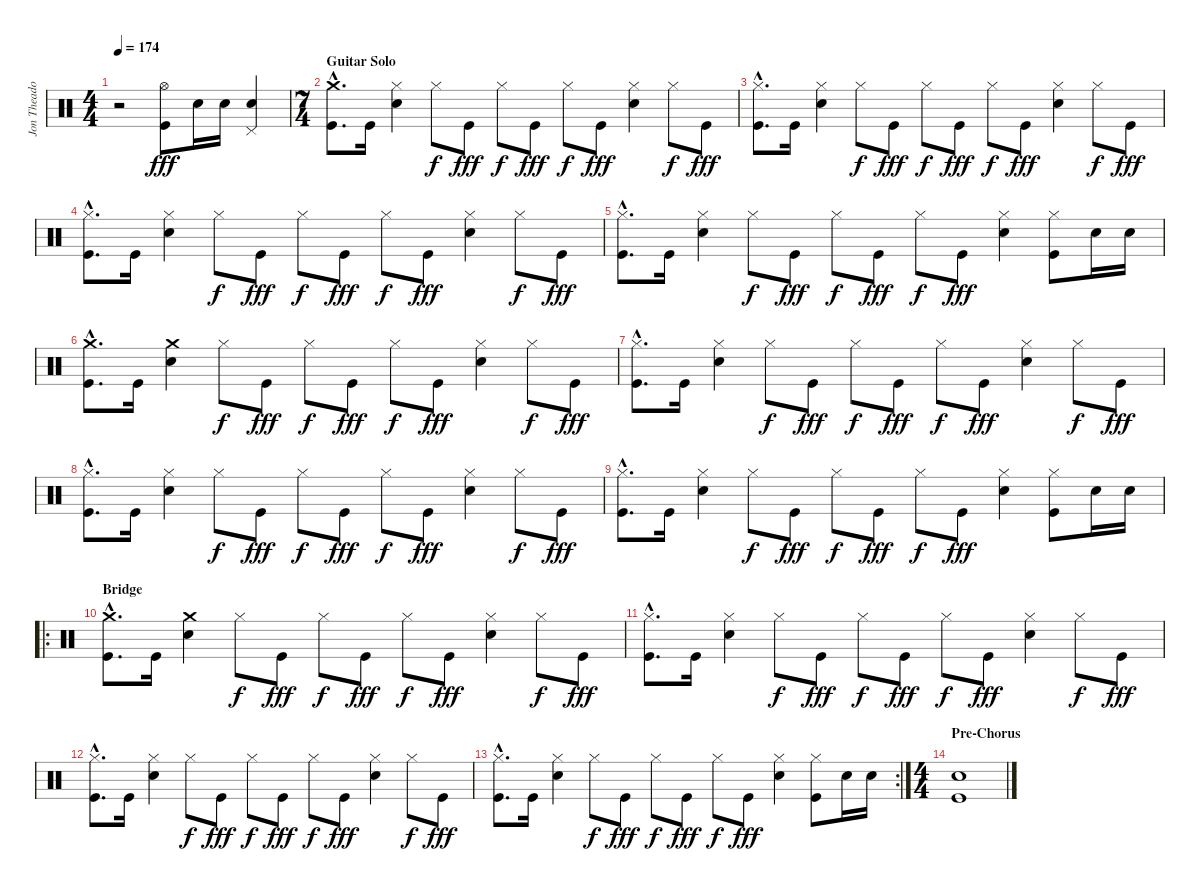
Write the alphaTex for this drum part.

\track ("Jon Theadore - Drums" "Jon Theado") {instrument percussion}
\staff {score}
\articulation defaults
\ts (4 4)
\tempo 174
\clef neutral
\ks c
r.2{dy fff} ("Hi-Hat (open)" "Kick (hit)").8 "Snare (hit) 2".16 "Snare (hit) 2".16 ("Pedal Hi-Hat (hit)" "Snare (hit) 2").4 |
\ts (7 4)
\section ("" "Guitar Solo")
("Crash medium (hit)"{hac} "Kick (hit)"{hac}).8{d} "Kick (hit)".16 ("Hi-Hat (closed)" "Snare (hit) 2").4 "Hi-Hat (closed)".8{dy f} "Kick (hit)".8{dy fff} "Hi-Hat (closed)".8{dy f} "Kick (hit)".8{dy fff} "Hi-Hat (closed)".8{dy f} "Kick (hit)".8{dy fff} ("Hi-Hat (closed)" "Snare (hit) 2").4 "Hi-Hat (closed)".8{dy f} "Kick (hit)".8{dy fff} |
("Hi-Hat (closed)"{hac} "Kick (hit)"{hac}).8{d} "Kick (hit)".16 ("Hi-Hat (closed)" "Snare (hit) 2").4 "Hi-Hat (closed)".8{dy f} "Kick (hit)".8{dy fff} "Hi-Hat (closed)".8{dy f} "Kick (hit)".8{dy fff} "Hi-Hat (closed)".8{dy f} "Kick (hit)".8{dy fff} ("Hi-Hat (closed)" "Snare (hit) 2").4 "Hi-Hat (closed)".8{dy f} "Kick (hit)".8{dy fff} |
("Hi-Hat (closed)"{hac} "Kick (hit)"{hac}).8{d} "Kick (hit)".16 ("Hi-Hat (closed)" "Snare (hit) 2").4 "Hi-Hat (closed)".8{dy f} "Kick (hit)".8{dy fff} "Hi-Hat (closed)".8{dy f} "Kick (hit)".8{dy fff} "Hi-Hat (closed)".8{dy f} "Kick (hit)".8{dy fff} ("Hi-Hat (closed)" "Snare (hit) 2").4 "Hi-Hat (closed)".8{dy f} "Kick (hit)".8{dy fff} |
("Hi-Hat (closed)"{hac} "Kick (hit)"{hac}).8{d} "Kick (hit)".16 ("Hi-Hat (closed)" "Snare (hit) 2").4 "Hi-Hat (closed)".8{dy f} "Kick (hit)".8{dy fff} "Hi-Hat (closed)".8{dy f} "Kick (hit)".8{dy fff} "Hi-Hat (closed)".8{dy f} "Kick (hit)".8{dy fff} ("Hi-Hat (closed)" "Snare (hit) 2").4 ("Hi-Hat (closed)" "Kick (hit)").8 "Snare (hit) 2".16 "Snare (hit) 2".16 |
("Crash medium (hit)"{hac} "Kick (hit)"{hac}).8{d} "Kick (hit)".16 ("Crash medium (hit)" "Snare (hit) 2").4 "Hi-Hat (closed)".8{dy f} "Kick (hit)".8{dy fff} "Hi-Hat (closed)".8{dy f} "Kick (hit)".8{dy fff} "Hi-Hat (closed)".8{dy f} "Kick (hit)".8{dy fff} ("Hi-Hat (closed)" "Snare (hit) 2").4 "Hi-Hat (closed)".8{dy f} "Kick (hit)".8{dy fff} |
("Hi-Hat (closed)"{hac} "Kick (hit)"{hac}).8{d} "Kick (hit)".16 ("Hi-Hat (closed)" "Snare (hit) 2").4 "Hi-Hat (closed)".8{dy f} "Kick (hit)".8{dy fff} "Hi-Hat (closed)".8{dy f} "Kick (hit)".8{dy fff} "Hi-Hat (closed)".8{dy f} "Kick (hit)".8{dy fff} ("Hi-Hat (closed)" "Snare (hit) 2").4 "Hi-Hat (closed)".8{dy f} "Kick (hit)".8{dy fff} |
("Hi-Hat (closed)"{hac} "Kick (hit)"{hac}).8{d} "Kick (hit)".16 ("Hi-Hat (closed)" "Snare (hit) 2").4 "Hi-Hat (closed)".8{dy f} "Kick (hit)".8{dy fff} "Hi-Hat (closed)".8{dy f} "Kick (hit)".8{dy fff} "Hi-Hat (closed)".8{dy f} "Kick (hit)".8{dy fff} ("Hi-Hat (closed)" "Snare (hit) 2").4 "Hi-Hat (closed)".8{dy f} "Kick (hit)".8{dy fff} |
("Hi-Hat (closed)"{hac} "Kick (hit)"{hac}).8{d} "Kick (hit)".16 ("Hi-Hat (closed)" "Snare (hit) 2").4 "Hi-Hat (closed)".8{dy f} "Kick (hit)".8{dy fff} "Hi-Hat (closed)".8{dy f} "Kick (hit)".8{dy fff} "Hi-Hat (closed)".8{dy f} "Kick (hit)".8{dy fff} ("Hi-Hat (closed)" "Snare (hit) 2").4 ("Hi-Hat (closed)" "Kick (hit)").8 "Snare (hit) 2".16 "Snare (hit) 2".16 |
\ro
\section ("" "Bridge")
("Crash medium (hit)"{hac} "Kick (hit)"{hac}).8{d} "Kick (hit)".16 ("Crash medium (hit)" "Snare (hit) 2").4 "Hi-Hat (closed)".8{dy f} "Kick (hit)".8{dy fff} "Hi-Hat (closed)".8{dy f} "Kick (hit)".8{dy fff} "Hi-Hat (closed)".8{dy f} "Kick (hit)".8{dy fff} ("Hi-Hat (closed)" "Snare (hit) 2").4 "Hi-Hat (closed)".8{dy f} "Kick (hit)".8{dy fff} |
("Hi-Hat (closed)"{hac} "Kick (hit)"{hac}).8{d} "Kick (hit)".16 ("Hi-Hat (closed)" "Snare (hit) 2").4 "Hi-Hat (closed)".8{dy f} "Kick (hit)".8{dy fff} "Hi-Hat (closed)".8{dy f} "Kick (hit)".8{dy fff} "Hi-Hat (closed)".8{dy f} "Kick (hit)".8{dy fff} ("Hi-Hat (closed)" "Snare (hit) 2").4 "Hi-Hat (closed)".8{dy f} "Kick (hit)".8{dy fff} |
("Hi-Hat (closed)"{hac} "Kick (hit)"{hac}).8{d} "Kick (hit)".16 ("Hi-Hat (closed)" "Snare (hit) 2").4 "Hi-Hat (closed)".8{dy f} "Kick (hit)".8{dy fff} "Hi-Hat (closed)".8{dy f} "Kick (hit)".8{dy fff} "Hi-Hat (closed)".8{dy f} "Kick (hit)".8{dy fff} ("Hi-Hat (closed)" "Snare (hit) 2").4 "Hi-Hat (closed)".8{dy f} "Kick (hit)".8{dy fff} |
\rc 2
("Hi-Hat (closed)"{hac} "Kick (hit)"{hac}).8{d} "Kick (hit)".16 ("Hi-Hat (closed)" "Snare (hit) 2").4 "Hi-Hat (closed)".8{dy f} "Kick (hit)".8{dy fff} "Hi-Hat (closed)".8{dy f} "Kick (hit)".8{dy fff} "Hi-Hat (closed)".8{dy f} "Kick (hit)".8{dy fff} ("Hi-Hat (closed)" "Snare (hit) 2").4 ("Hi-Hat (closed)" "Kick (hit)").8 "Snare (hit) 2".16 "Snare (hit) 2".16 |
\ts (4 4)
\section ("" "Pre-Chorus")
("Snare (hit) 2" "Kick (hit)").1
